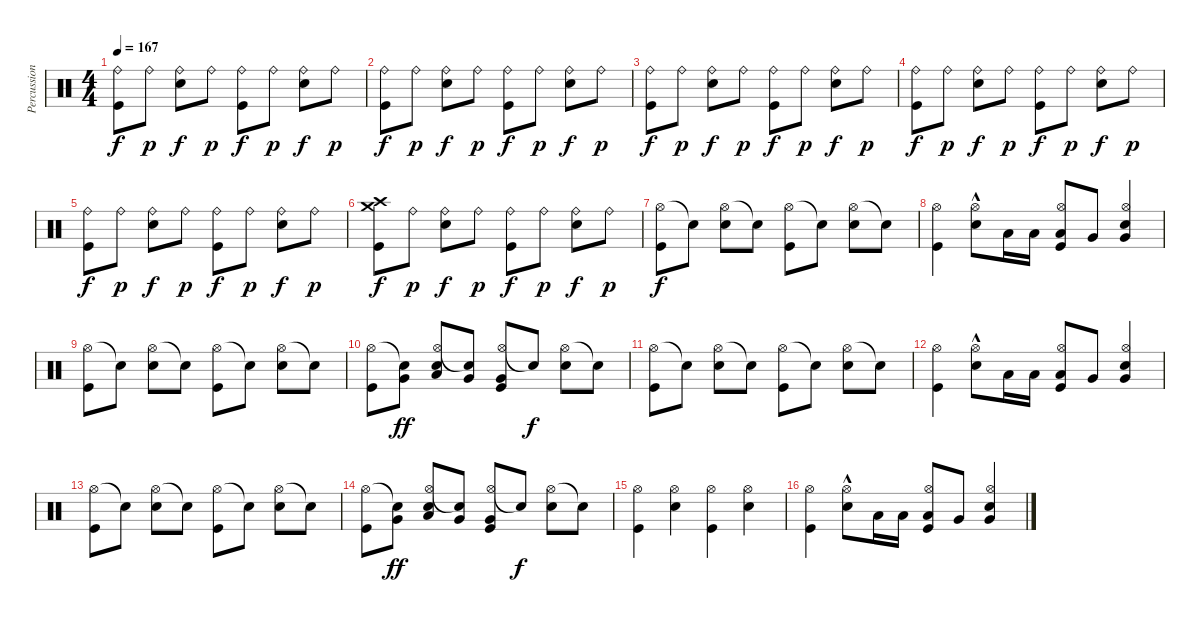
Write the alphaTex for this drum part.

\track ("Percussions" "Percussion") {instrument percussion}
\staff {score}
\articulation defaults
\ts (4 4)
\tempo 167
\clef neutral
\ks c
("Ride (bell)" "Kick (hit)").8{dy f} "Ride (bell)".8{dy p} ("Ride (bell)" "Electric Snare (hit)").8{dy f} "Ride (bell)".8{dy p} ("Ride (bell)" "Kick (hit)").8{dy f} "Ride (bell)".8{dy p} ("Ride (bell)" "Electric Snare (hit)").8{dy f} "Ride (bell)".8{dy p} |
("Ride (bell)" "Kick (hit)").8{dy f} "Ride (bell)".8{dy p} ("Ride (bell)" "Electric Snare (hit)").8{dy f} "Ride (bell)".8{dy p} ("Ride (bell)" "Kick (hit)").8{dy f} "Ride (bell)".8{dy p} ("Ride (bell)" "Electric Snare (hit)").8{dy f} "Ride (bell)".8{dy p} |
("Ride (bell)" "Kick (hit)").8{dy f} "Ride (bell)".8{dy p} ("Ride (bell)" "Electric Snare (hit)").8{dy f} "Ride (bell)".8{dy p} ("Ride (bell)" "Kick (hit)").8{dy f} "Ride (bell)".8{dy p} ("Ride (bell)" "Electric Snare (hit)").8{dy f} "Ride (bell)".8{dy p} |
("Ride (bell)" "Kick (hit)").8{dy f} "Ride (bell)".8{dy p} ("Ride (bell)" "Electric Snare (hit)").8{dy f} "Ride (bell)".8{dy p} ("Ride (bell)" "Kick (hit)").8{dy f} "Ride (bell)".8{dy p} ("Ride (bell)" "Electric Snare (hit)").8{dy f} "Ride (bell)".8{dy p} |
("Ride (bell)" "Kick (hit)").8{dy f} "Ride (bell)".8{dy p} ("Ride (bell)" "Electric Snare (hit)").8{dy f} "Ride (bell)".8{dy p} ("Ride (bell)" "Kick (hit)").8{dy f} "Ride (bell)".8{dy p} ("Ride (bell)" "Electric Snare (hit)").8{dy f} "Ride (bell)".8{dy p} |
("Crash medium (hit)" "Crash high (hit)" "Kick (hit)").8{dy f} "Ride (bell)".8{dy p} ("Ride (bell)" "Electric Snare (hit)").8{dy f} "Ride (bell)".8{dy p} ("Ride (bell)" "Kick (hit)").8{dy f} "Ride (bell)".8{dy p} ("Ride (bell)" "Electric Snare (hit)").8{dy f} "Ride (bell)".8{dy p} |
("Hi-Hat (open)" "Kick (hit)").8{dy f volume 15} "Snare (hit)"{t}.8 ("Hi-Hat (open)" "Electric Snare (hit)").8 "Snare (hit)"{t}.8 ("Hi-Hat (open)" "Kick (hit)").8 "Snare (hit)"{t}.8 ("Hi-Hat (open)" "Electric Snare (hit)").8 "Snare (hit)"{t}.8 |
("Hi-Hat (open)" "Kick (hit)").4 ("Hi-Hat (open)"{hac} "Electric Snare (hit)").8 "Low Tom (hit)".16 "Low Tom (hit)".16 ("Hi-Hat (open)" "Low Tom (hit)" "Kick (hit)").8 "Very Low Tom (hit)".8 ("Hi-Hat (open)" "Electric Snare (hit)" "Very Low Tom (hit)").4 |
("Hi-Hat (open)" "Kick (hit)").8 "Snare (hit)"{t}.8 ("Hi-Hat (open)" "Electric Snare (hit)").8 "Snare (hit)"{t}.8 ("Hi-Hat (open)" "Kick (hit)").8 "Snare (hit)"{t}.8 ("Hi-Hat (open)" "Electric Snare (hit)").8 "Snare (hit)"{t}.8 |
("Hi-Hat (open)" "Kick (hit)").8 ("Snare (hit)"{t} "Very Low Tom (hit)").8{dy ff} ("Hi-Hat (open)" "Low Tom (hit)" "Electric Snare (hit)").8 ("Snare (hit)"{t} "Very Low Tom (hit)").8 ("Hi-Hat (open)" "Very Low Tom (hit)" "Kick (hit)").8 "Snare (hit)"{t}.8{dy f} ("Hi-Hat (open)" "Electric Snare (hit)").8 "Snare (hit)"{t}.8 |
("Hi-Hat (open)" "Kick (hit)").8 "Snare (hit)"{t}.8 ("Hi-Hat (open)" "Electric Snare (hit)").8 "Snare (hit)"{t}.8 ("Hi-Hat (open)" "Kick (hit)").8 "Snare (hit)"{t}.8 ("Hi-Hat (open)" "Electric Snare (hit)").8 "Snare (hit)"{t}.8 |
("Hi-Hat (open)" "Kick (hit)").4 ("Hi-Hat (open)"{hac} "Electric Snare (hit)").8 "Low Tom (hit)".16 "Low Tom (hit)".16 ("Hi-Hat (open)" "Low Tom (hit)" "Kick (hit)").8 "Very Low Tom (hit)".8 ("Hi-Hat (open)" "Electric Snare (hit)" "Very Low Tom (hit)").4 |
("Hi-Hat (open)" "Kick (hit)").8 "Snare (hit)"{t}.8 ("Hi-Hat (open)" "Electric Snare (hit)").8 "Snare (hit)"{t}.8 ("Hi-Hat (open)" "Kick (hit)").8 "Snare (hit)"{t}.8 ("Hi-Hat (open)" "Electric Snare (hit)").8 "Snare (hit)"{t}.8 |
("Hi-Hat (open)" "Kick (hit)").8 ("Snare (hit)"{t} "Very Low Tom (hit)").8{dy ff} ("Hi-Hat (open)" "Low Tom (hit)" "Electric Snare (hit)").8 ("Snare (hit)"{t} "Very Low Tom (hit)").8 ("Hi-Hat (open)" "Very Low Tom (hit)" "Kick (hit)").8 "Snare (hit)"{t}.8{dy f} ("Hi-Hat (open)" "Electric Snare (hit)").8 "Snare (hit)"{t}.8 |
("Hi-Hat (open)" "Kick (hit)").4{volume 15} ("Hi-Hat (open)" "Electric Snare (hit)").4 ("Hi-Hat (open)" "Kick (hit)").4 ("Hi-Hat (open)" "Electric Snare (hit)").4 |
("Hi-Hat (open)" "Kick (hit)").4 ("Hi-Hat (open)"{hac} "Electric Snare (hit)").8 "Low Tom (hit)".16 "Low Tom (hit)".16 ("Hi-Hat (open)" "Low Tom (hit)" "Kick (hit)").8 "Very Low Tom (hit)".8 ("Hi-Hat (open)" "Electric Snare (hit)" "Very Low Tom (hit)").4
